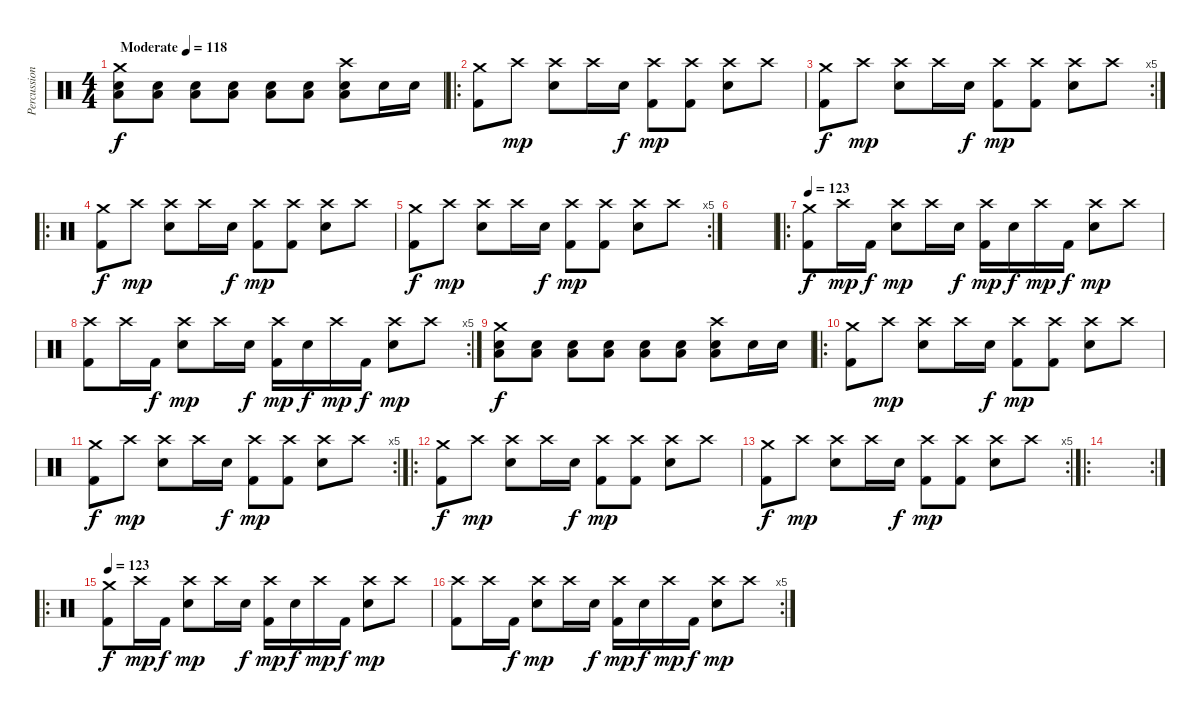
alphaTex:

\track ("Percussion" "Percussion") {instrument percussion}
\staff {score}
\articulation defaults
\ts (4 4)
\tempo (118 "Moderate")
\clef neutral
\ks c
("Crash medium (hit)" "Snare (hit) 2" "Low Tom (hit)").8{dy f} ("Snare (hit) 2" "Low Tom (hit)").8 ("Snare (hit) 2" "Low Tom (hit)").8 ("Snare (hit) 2" "Low Tom (hit)").8 ("Snare (hit) 2" "Low Tom (hit)").8 ("Snare (hit) 2" "Low Tom (hit)").8 ("Crash high (hit)" "Snare (hit) 2" "Low Tom (hit)").8 "Snare (hit) 2".16 "Snare (hit) 2".16 |
\ro
("Crash medium (hit)" "Kick (hit) 2").8 "Crash high (hit)".8{dy mp} ("Crash high (hit)" "Snare (hit) 2").8 "Crash high (hit)".16 "Snare (hit) 2".16{dy f} ("Crash high (hit)" "Kick (hit) 2").8{dy mp} ("Crash high (hit)" "Kick (hit) 2").8 ("Crash high (hit)" "Snare (hit) 2").8 "Crash high (hit)".8 |
\rc 5
("Crash medium (hit)" "Kick (hit) 2").8{dy f} "Crash high (hit)".8{dy mp} ("Crash high (hit)" "Snare (hit) 2").8 "Crash high (hit)".16 "Snare (hit) 2".16{dy f} ("Crash high (hit)" "Kick (hit) 2").8{dy mp} ("Crash high (hit)" "Kick (hit) 2").8 ("Crash high (hit)" "Snare (hit) 2").8 "Crash high (hit)".8 |
\ro
("Crash medium (hit)" "Kick (hit) 2").8{dy f} "Crash high (hit)".8{dy mp} ("Crash high (hit)" "Snare (hit) 2").8 "Crash high (hit)".16 "Snare (hit) 2".16{dy f} ("Crash high (hit)" "Kick (hit) 2").8{dy mp} ("Crash high (hit)" "Kick (hit) 2").8 ("Crash high (hit)" "Snare (hit) 2").8 "Crash high (hit)".8 |
\rc 5
("Crash medium (hit)" "Kick (hit) 2").8{dy f} "Crash high (hit)".8{dy mp} ("Crash high (hit)" "Snare (hit) 2").8 "Crash high (hit)".16 "Snare (hit) 2".16{dy f} ("Crash high (hit)" "Kick (hit) 2").8{dy mp} ("Crash high (hit)" "Kick (hit) 2").8 ("Crash high (hit)" "Snare (hit) 2").8 "Crash high (hit)".8 |
|
\ro
\tempo 123
("Crash medium (hit)" "Kick (hit) 2").8{dy f} "Crash high (hit)".16{dy mp} "Kick (hit) 2".16{dy f} ("Crash high (hit)" "Snare (hit) 2").8{dy mp} "Crash high (hit)".16 "Snare (hit) 2".16{dy f} ("Crash high (hit)" "Kick (hit) 2").16{dy mp} "Snare (hit) 2".16{dy f} "Crash high (hit)".16{dy mp} "Kick (hit) 2".16{dy f} ("Crash high (hit)" "Snare (hit) 2").8{dy mp} "Crash high (hit)".8 |
\rc 5
("Crash high (hit)" "Kick (hit) 2").8 "Crash high (hit)".16 "Kick (hit) 2".16{dy f} ("Crash high (hit)" "Snare (hit) 2").8{dy mp} "Crash high (hit)".16 "Snare (hit) 2".16{dy f} ("Crash high (hit)" "Kick (hit) 2").16{dy mp} "Snare (hit) 2".16{dy f} "Crash high (hit)".16{dy mp} "Kick (hit) 2".16{dy f} ("Crash high (hit)" "Snare (hit) 2").8{dy mp} "Crash high (hit)".8 |
("Crash medium (hit)" "Snare (hit) 2" "Low Tom (hit)").8{dy f} ("Snare (hit) 2" "Low Tom (hit)").8 ("Snare (hit) 2" "Low Tom (hit)").8 ("Snare (hit) 2" "Low Tom (hit)").8 ("Snare (hit) 2" "Low Tom (hit)").8 ("Snare (hit) 2" "Low Tom (hit)").8 ("Crash high (hit)" "Snare (hit) 2" "Low Tom (hit)").8 "Snare (hit) 2".16 "Snare (hit) 2".16 |
\ro
("Crash medium (hit)" "Kick (hit) 2").8 "Crash high (hit)".8{dy mp} ("Crash high (hit)" "Snare (hit) 2").8 "Crash high (hit)".16 "Snare (hit) 2".16{dy f} ("Crash high (hit)" "Kick (hit) 2").8{dy mp} ("Crash high (hit)" "Kick (hit) 2").8 ("Crash high (hit)" "Snare (hit) 2").8 "Crash high (hit)".8 |
\rc 5
("Crash medium (hit)" "Kick (hit) 2").8{dy f} "Crash high (hit)".8{dy mp} ("Crash high (hit)" "Snare (hit) 2").8 "Crash high (hit)".16 "Snare (hit) 2".16{dy f} ("Crash high (hit)" "Kick (hit) 2").8{dy mp} ("Crash high (hit)" "Kick (hit) 2").8 ("Crash high (hit)" "Snare (hit) 2").8 "Crash high (hit)".8 |
\ro
("Crash medium (hit)" "Kick (hit) 2").8{dy f} "Crash high (hit)".8{dy mp} ("Crash high (hit)" "Snare (hit) 2").8 "Crash high (hit)".16 "Snare (hit) 2".16{dy f} ("Crash high (hit)" "Kick (hit) 2").8{dy mp} ("Crash high (hit)" "Kick (hit) 2").8 ("Crash high (hit)" "Snare (hit) 2").8 "Crash high (hit)".8 |
\rc 5
("Crash medium (hit)" "Kick (hit) 2").8{dy f} "Crash high (hit)".8{dy mp} ("Crash high (hit)" "Snare (hit) 2").8 "Crash high (hit)".16 "Snare (hit) 2".16{dy f} ("Crash high (hit)" "Kick (hit) 2").8{dy mp} ("Crash high (hit)" "Kick (hit) 2").8 ("Crash high (hit)" "Snare (hit) 2").8 "Crash high (hit)".8 |
\ro
\rc 2
|
\ro
\tempo 123
("Crash medium (hit)" "Kick (hit) 2").8{dy f} "Crash high (hit)".16{dy mp} "Kick (hit) 2".16{dy f} ("Crash high (hit)" "Snare (hit) 2").8{dy mp} "Crash high (hit)".16 "Snare (hit) 2".16{dy f} ("Crash high (hit)" "Kick (hit) 2").16{dy mp} "Snare (hit) 2".16{dy f} "Crash high (hit)".16{dy mp} "Kick (hit) 2".16{dy f} ("Crash high (hit)" "Snare (hit) 2").8{dy mp} "Crash high (hit)".8 |
\rc 5
("Crash high (hit)" "Kick (hit) 2").8 "Crash high (hit)".16 "Kick (hit) 2".16{dy f} ("Crash high (hit)" "Snare (hit) 2").8{dy mp} "Crash high (hit)".16 "Snare (hit) 2".16{dy f} ("Crash high (hit)" "Kick (hit) 2").16{dy mp} "Snare (hit) 2".16{dy f} "Crash high (hit)".16{dy mp} "Kick (hit) 2".16{dy f} ("Crash high (hit)" "Snare (hit) 2").8{dy mp} "Crash high (hit)".8
